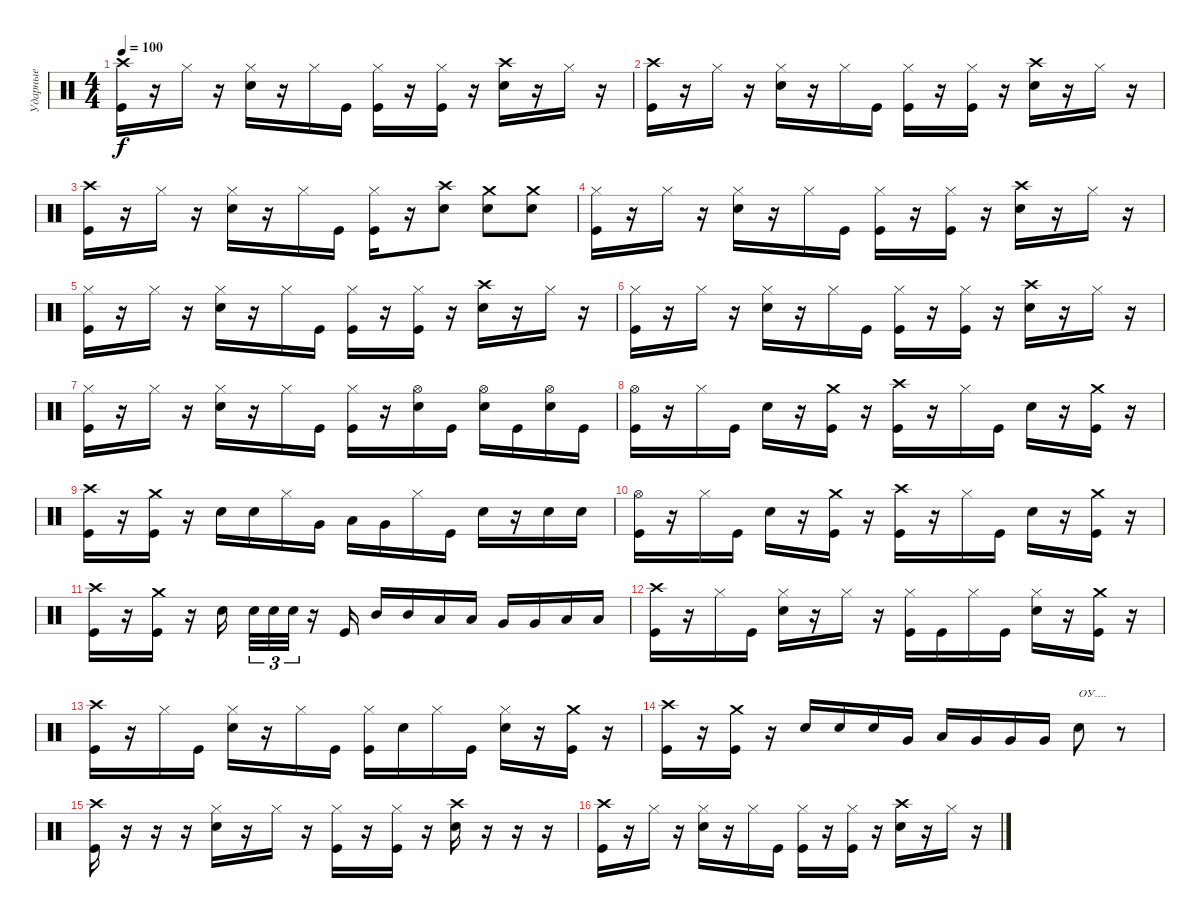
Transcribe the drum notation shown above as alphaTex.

\track ("Ударные" "Ударные") {instrument percussion}
\staff {score}
\articulation defaults
\ts (4 4)
\tempo 100
\clef neutral
\ks c
("Crash high (hit)" "Kick (hit)").16{dy f} r.16 "Hi-Hat (closed)".16 r.16 ("Hi-Hat (closed)" "Snare (hit) 2").16 r.16 "Hi-Hat (closed)".16 "Kick (hit)".16 ("Hi-Hat (closed)" "Kick (hit)").16 r.16 ("Hi-Hat (closed)" "Kick (hit)").16 r.16 ("Crash high (hit)" "Snare (hit) 2").16 r.16 "Hi-Hat (closed)".16 r.16 |
("Crash high (hit)" "Kick (hit)").16 r.16 "Hi-Hat (closed)".16 r.16 ("Hi-Hat (closed)" "Snare (hit) 2").16 r.16 "Hi-Hat (closed)".16 "Kick (hit)".16 ("Hi-Hat (closed)" "Kick (hit)").16 r.16 ("Hi-Hat (closed)" "Kick (hit)").16 r.16 ("Crash high (hit)" "Snare (hit) 2").16 r.16 "Hi-Hat (closed)".16 r.16 |
("Crash high (hit)" "Kick (hit)").16 r.16 "Hi-Hat (closed)".16 r.16 ("Hi-Hat (closed)" "Snare (hit) 2").16 r.16 "Hi-Hat (closed)".16 "Kick (hit)".16 ("Hi-Hat (closed)" "Kick (hit)").16 r.16 ("Crash high (hit)" "Snare (hit) 2").8 ("Crash medium (hit)" "Snare (hit) 2").8 ("Crash medium (hit)" "Snare (hit) 2").8 |
("Hi-Hat (closed)" "Kick (hit)").16 r.16 "Hi-Hat (closed)".16 r.16 ("Hi-Hat (closed)" "Snare (hit) 2").16 r.16 "Hi-Hat (closed)".16 "Kick (hit)".16 ("Hi-Hat (closed)" "Kick (hit)").16 r.16 ("Hi-Hat (closed)" "Kick (hit)").16 r.16 ("Crash high (hit)" "Snare (hit) 2").16 r.16 "Hi-Hat (closed)".16 r.16 |
("Hi-Hat (closed)" "Kick (hit)").16 r.16 "Hi-Hat (closed)".16 r.16 ("Hi-Hat (closed)" "Snare (hit) 2").16 r.16 "Hi-Hat (closed)".16 "Kick (hit)".16 ("Hi-Hat (closed)" "Kick (hit)").16 r.16 ("Hi-Hat (closed)" "Kick (hit)").16 r.16 ("Crash high (hit)" "Snare (hit) 2").16 r.16 "Hi-Hat (closed)".16 r.16 |
("Hi-Hat (closed)" "Kick (hit)").16 r.16 "Hi-Hat (closed)".16 r.16 ("Hi-Hat (closed)" "Snare (hit) 2").16 r.16 "Hi-Hat (closed)".16 "Kick (hit)".16 ("Hi-Hat (closed)" "Kick (hit)").16 r.16 ("Hi-Hat (closed)" "Kick (hit)").16 r.16 ("Crash high (hit)" "Snare (hit) 2").16 r.16 "Hi-Hat (closed)".16 r.16 |
("Hi-Hat (closed)" "Kick (hit)").16 r.16 "Hi-Hat (closed)".16 r.16 ("Hi-Hat (closed)" "Snare (hit) 2").16 r.16 "Hi-Hat (closed)".16 "Kick (hit)".16 ("Hi-Hat (closed)" "Kick (hit)").16 r.16 ("Hi-Hat (open)" "Snare (hit) 2").16 "Kick (hit)".16 ("Hi-Hat (open)" "Snare (hit) 2").16 "Kick (hit)".16 ("Hi-Hat (open)" "Snare (hit) 2").16 "Kick (hit)".16 |
("Hi-Hat (open)" "Kick (hit)").16 r.16 "Hi-Hat (closed)".16 "Kick (hit)".16 "Snare (hit) 2".16 r.16 ("Crash medium (hit)" "Kick (hit)").16 r.16 ("Crash high (hit)" "Kick (hit)").16 r.16 "Hi-Hat (closed)".16 "Kick (hit)".16 "Snare (hit) 2".16 r.16 ("Crash medium (hit)" "Kick (hit)").16 r.16 |
("Crash high (hit)" "Kick (hit)").16 r.16 ("Crash medium (hit)" "Kick (hit)").16 r.16 "Snare (hit) 2".16 "Snare (hit) 2".16 "Hi-Hat (closed)".16 "Very Low Tom (hit)".16 "Low Tom (hit)".16 "Very Low Tom (hit)".16 "Hi-Hat (closed)".16 "Kick (hit)".16 "Snare (hit) 2".16 r.16 "Snare (hit) 2".16 "Snare (hit) 2".16 |
("Hi-Hat (open)" "Kick (hit)").16 r.16 "Hi-Hat (closed)".16 "Kick (hit)".16 "Snare (hit) 2".16 r.16 ("Crash medium (hit)" "Kick (hit)").16 r.16 ("Crash high (hit)" "Kick (hit)").16 r.16 "Hi-Hat (closed)".16 "Kick (hit)".16 "Snare (hit) 2".16 r.16 ("Crash medium (hit)" "Kick (hit)").16 r.16 |
("Crash high (hit)" "Kick (hit)").16 r.16 ("Crash medium (hit)" "Kick (hit)").16 r.16 "Snare (hit) 2".16{beam splitsecondary} "Snare (hit) 2".32{tu (3 2)} "Snare (hit) 2".32{tu (3 2)} "Snare (hit) 2".32{tu (3 2)} r.16 "Kick (hit)".16 "Mid Tom (hit)".16 "Mid Tom (hit)".16 "Low Tom (hit)".16 "Low Tom (hit)".16 "Very Low Tom (hit)".16 "Very Low Tom (hit)".16 "Low Tom (hit)".16 "Low Tom (hit)".16 |
("Crash high (hit)" "Kick (hit)").16 r.16 "Hi-Hat (closed)".16 "Kick (hit)".16 ("Hi-Hat (closed)" "Snare (hit) 2").16 r.16 "Hi-Hat (closed)".16 r.16 ("Hi-Hat (closed)" "Kick (hit)").16 "Kick (hit)".16 "Hi-Hat (closed)".16 "Kick (hit)".16 ("Hi-Hat (closed)" "Snare (hit) 2").16 r.16 ("Crash medium (hit)" "Kick (hit)").16 r.16 |
("Crash high (hit)" "Kick (hit)").16 r.16 "Hi-Hat (closed)".16 "Kick (hit)".16 ("Hi-Hat (closed)" "Snare (hit) 2").16 r.16 "Hi-Hat (closed)".16 "Kick (hit)".16 ("Hi-Hat (closed)" "Kick (hit)").16 "Snare (hit) 2".16 "Hi-Hat (closed)".16 "Kick (hit)".16 ("Hi-Hat (closed)" "Snare (hit) 2").16 r.16 ("Crash medium (hit)" "Kick (hit)").16 r.16 |
("Crash high (hit)" "Kick (hit)").16 r.16 ("Crash medium (hit)" "Kick (hit)").16 r.16 "Snare (hit) 2".16 "Snare (hit) 2".16 "Snare (hit) 2".16 "Very Low Tom (hit)".16 "Low Tom (hit)".16 "Very Low Tom (hit)".16 "Very Low Tom (hit)".16 "Very Low Tom (hit)".16 "Snare (hit) 2".8{txt "ОУ...."} r.8 |
("Crash high (hit)" "Kick (hit)").16 r.16 r.16 r.16 ("Hi-Hat (closed)" "Snare (hit) 2").16 r.16 "Hi-Hat (closed)".16 r.16 ("Hi-Hat (closed)" "Kick (hit)").16 r.16 ("Hi-Hat (closed)" "Kick (hit)").16 r.16 ("Crash high (hit)" "Snare (hit) 2").16 r.16 r.16 r.16 |
("Crash high (hit)" "Kick (hit)").16 r.16 "Hi-Hat (closed)".16 r.16 ("Hi-Hat (closed)" "Snare (hit) 2").16 r.16 "Hi-Hat (closed)".16 "Kick (hit)".16 ("Hi-Hat (closed)" "Kick (hit)").16 r.16 ("Hi-Hat (closed)" "Kick (hit)").16 r.16 ("Crash high (hit)" "Snare (hit) 2").16 r.16 "Hi-Hat (closed)".16 r.16
